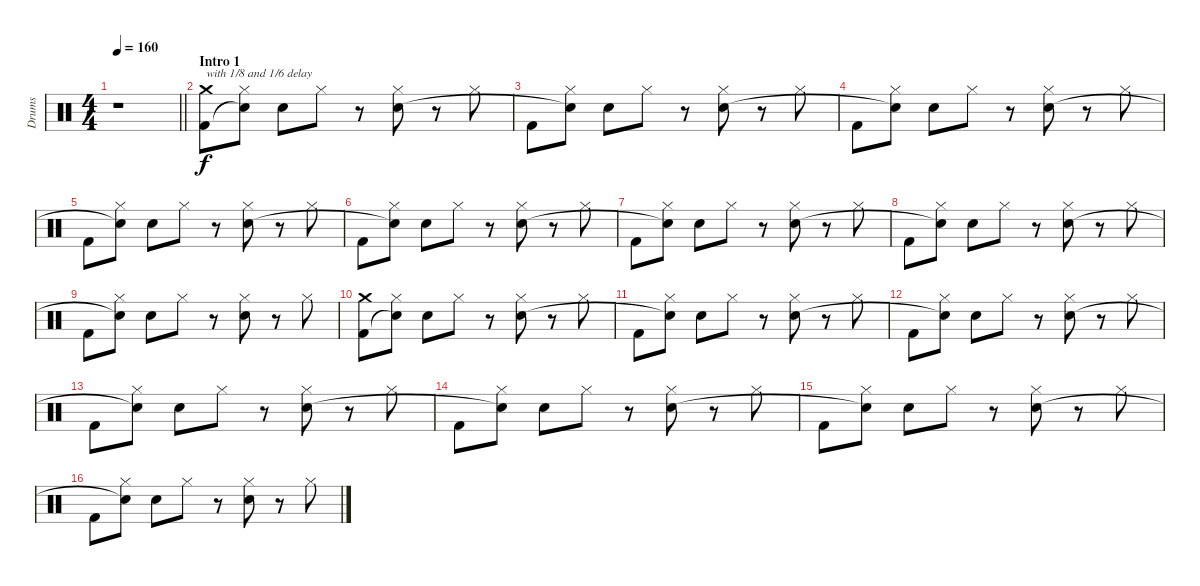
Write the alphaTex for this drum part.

\track ("Drums" "Drums") {instrument percussion}
\staff {score}
\articulation defaults
\ts (4 4)
\tempo 160
\clef neutral
\barLineRight lightlight
\ks c
r.1{dy f} |
\section ("" "Intro 1")
("Crash medium (hit)" "Kick (hit) 2").8{txt "with 1/8 and 1/6 delay"} ("Hi-Hat (closed)" "Snare (hit)"{t}).8 "Electric Snare (hit)".8 "Hi-Hat (closed)".8 r.8 ("Hi-Hat (closed)" "Electric Snare (hit)").8 r.8 "Hi-Hat (closed)".8 |
"Kick (hit) 2".8 ("Hi-Hat (closed)" "Snare (hit)"{t}).8 "Electric Snare (hit)".8 "Hi-Hat (closed)".8 r.8 ("Hi-Hat (closed)" "Electric Snare (hit)").8 r.8 "Hi-Hat (closed)".8 |
"Kick (hit) 2".8 ("Hi-Hat (closed)" "Snare (hit)"{t}).8 "Electric Snare (hit)".8 "Hi-Hat (closed)".8 r.8 ("Hi-Hat (closed)" "Electric Snare (hit)").8 r.8 "Hi-Hat (closed)".8 |
"Kick (hit) 2".8 ("Hi-Hat (closed)" "Snare (hit)"{t}).8 "Electric Snare (hit)".8 "Hi-Hat (closed)".8 r.8 ("Hi-Hat (closed)" "Electric Snare (hit)").8 r.8 "Hi-Hat (closed)".8 |
"Kick (hit) 2".8 ("Hi-Hat (closed)" "Snare (hit)"{t}).8 "Electric Snare (hit)".8 "Hi-Hat (closed)".8 r.8 ("Hi-Hat (closed)" "Electric Snare (hit)").8 r.8 "Hi-Hat (closed)".8 |
"Kick (hit) 2".8 ("Hi-Hat (closed)" "Snare (hit)"{t}).8 "Electric Snare (hit)".8 "Hi-Hat (closed)".8 r.8 ("Hi-Hat (closed)" "Electric Snare (hit)").8 r.8 "Hi-Hat (closed)".8 |
"Kick (hit) 2".8 ("Hi-Hat (closed)" "Snare (hit)"{t}).8 "Electric Snare (hit)".8 "Hi-Hat (closed)".8 r.8 ("Hi-Hat (closed)" "Electric Snare (hit)").8 r.8 "Hi-Hat (closed)".8 |
"Kick (hit) 2".8 ("Hi-Hat (closed)" "Snare (hit)"{t}).8 "Electric Snare (hit)".8 "Hi-Hat (closed)".8 r.8 ("Hi-Hat (closed)" "Electric Snare (hit)").8 r.8 "Hi-Hat (closed)".8 |
("Crash medium (hit)" "Kick (hit) 2").8 ("Hi-Hat (closed)" "Snare (hit)"{t}).8 "Electric Snare (hit)".8 "Hi-Hat (closed)".8 r.8 ("Hi-Hat (closed)" "Electric Snare (hit)").8 r.8 "Hi-Hat (closed)".8 |
"Kick (hit) 2".8 ("Hi-Hat (closed)" "Snare (hit)"{t}).8 "Electric Snare (hit)".8 "Hi-Hat (closed)".8 r.8 ("Hi-Hat (closed)" "Electric Snare (hit)").8 r.8 "Hi-Hat (closed)".8 |
"Kick (hit) 2".8 ("Hi-Hat (closed)" "Snare (hit)"{t}).8 "Electric Snare (hit)".8 "Hi-Hat (closed)".8 r.8 ("Hi-Hat (closed)" "Electric Snare (hit)").8 r.8 "Hi-Hat (closed)".8 |
"Kick (hit) 2".8 ("Hi-Hat (closed)" "Snare (hit)"{t}).8 "Electric Snare (hit)".8 "Hi-Hat (closed)".8 r.8 ("Hi-Hat (closed)" "Electric Snare (hit)").8 r.8 "Hi-Hat (closed)".8 |
"Kick (hit) 2".8 ("Hi-Hat (closed)" "Snare (hit)"{t}).8 "Electric Snare (hit)".8 "Hi-Hat (closed)".8 r.8 ("Hi-Hat (closed)" "Electric Snare (hit)").8 r.8 "Hi-Hat (closed)".8 |
"Kick (hit) 2".8 ("Hi-Hat (closed)" "Snare (hit)"{t}).8 "Electric Snare (hit)".8 "Hi-Hat (closed)".8 r.8 ("Hi-Hat (closed)" "Electric Snare (hit)").8 r.8 "Hi-Hat (closed)".8 |
"Kick (hit) 2".8 ("Hi-Hat (closed)" "Snare (hit)"{t}).8 "Electric Snare (hit)".8 "Hi-Hat (closed)".8 r.8 ("Hi-Hat (closed)" "Electric Snare (hit)").8 r.8 "Hi-Hat (closed)".8
